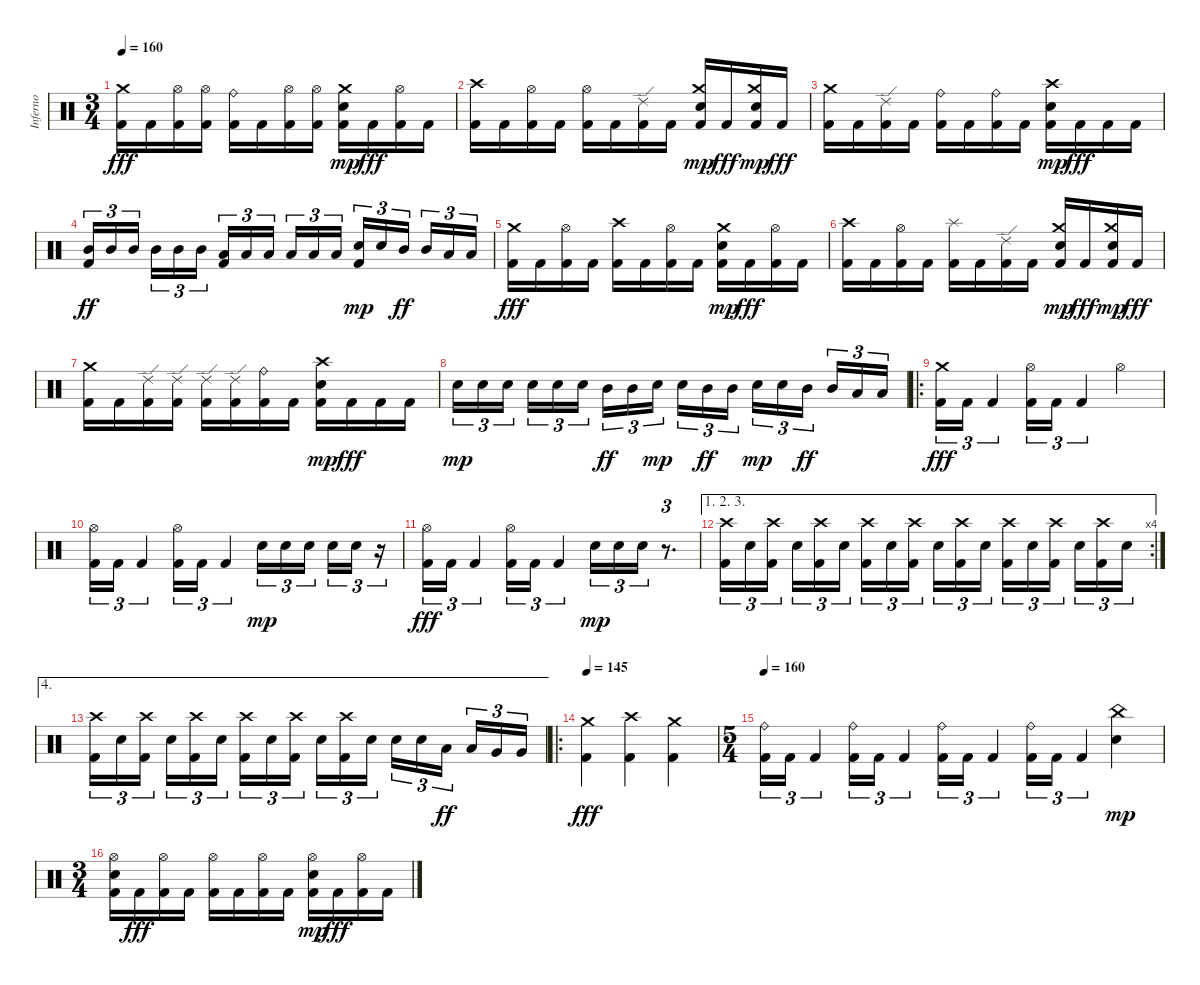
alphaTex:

\track ("Inferno" "Inferno") {instrument percussion}
\staff {score}
\articulation defaults
\ts (3 4)
\tempo 160
\clef neutral
\ks c
("Kick (hit) 2" "Crash medium (hit)").16{dy fff} "Kick (hit) 2".16 ("Kick (hit) 2" "Hi-Hat (open)").16 ("Kick (hit) 2" "Hi-Hat (open)").16 ("Kick (hit) 2" "Ride (bell)").16 "Kick (hit) 2".16 ("Kick (hit) 2" "Hi-Hat (open)").16 ("Kick (hit) 2" "Hi-Hat (open)").16 ("Kick (hit) 2" "Crash medium (hit)" "Electric Snare (hit)").16{dy mp} "Kick (hit) 2".16{dy fff} ("Kick (hit) 2" "Hi-Hat (open)").16 "Kick (hit) 2".16 |
("Kick (hit) 2" "Crash high (hit)").16 "Kick (hit) 2".16 ("Kick (hit) 2" "Hi-Hat (open)").16 "Kick (hit) 2".16 ("Kick (hit) 2" "Hi-Hat (open)").16 "Kick (hit) 2".16 ("Kick (hit) 2" "Ride (edge) 2").16 "Kick (hit) 2".16 ("Kick (hit) 2" "Crash medium (hit)" "Electric Snare (hit)").16{dy mp} "Kick (hit) 2".16{dy fff} ("Kick (hit) 2" "Crash medium (hit)" "Electric Snare (hit)").16{dy mp} "Kick (hit) 2".16{dy fff} |
("Kick (hit) 2" "Crash medium (hit)").16 "Kick (hit) 2".16 ("Kick (hit) 2" "Ride (edge) 2").16 "Kick (hit) 2".16 ("Kick (hit) 2" "Ride (bell)").16 "Kick (hit) 2".16 ("Kick (hit) 2" "Ride (bell)").16 "Kick (hit) 2".16 ("Kick (hit) 2" "Crash high (hit)" "Electric Snare (hit)").16{dy mp} "Kick (hit) 2".16{dy fff} "Kick (hit) 2".16 "Kick (hit) 2".16 |
("Kick (hit) 2" "Mid Tom (hit)").16{tu (3 2) dy ff} "Mid Tom (hit)".16{tu (3 2)} "Mid Tom (hit)".16{tu (3 2) beam splitsecondary} "Mid Tom (hit)".16{tu (3 2)} "Mid Tom (hit)".16{tu (3 2)} "Mid Tom (hit)".16{tu (3 2)} ("Kick (hit) 2" "Low Tom (hit)").16{tu (3 2)} "Low Tom (hit)".16{tu (3 2)} "Low Tom (hit)".16{tu (3 2) beam splitsecondary} "Low Tom (hit)".16{tu (3 2)} "Low Tom (hit)".16{tu (3 2)} "Low Tom (hit)".16{tu (3 2)} ("Kick (hit) 2" "Electric Snare (hit)").16{tu (3 2) dy mp} "Electric Snare (hit)".16{tu (3 2)} "Mid Tom (hit)".16{tu (3 2) dy ff beam splitsecondary} "Mid Tom (hit)".16{tu (3 2)} "Low Tom (hit)".16{tu (3 2)} "Low Tom (hit)".16{tu (3 2)} |
("Kick (hit) 2" "Crash medium (hit)").16{dy fff} "Kick (hit) 2".16 ("Kick (hit) 2" "Hi-Hat (open)").16 "Kick (hit) 2".16 ("Kick (hit) 2" "Crash high (hit)").16 "Kick (hit) 2".16 ("Kick (hit) 2" "Hi-Hat (open)").16 "Kick (hit) 2".16 ("Kick (hit) 2" "Crash medium (hit)" "Electric Snare (hit)").16{dy mp} "Kick (hit) 2".16{dy fff} ("Kick (hit) 2" "Hi-Hat (open)").16 "Kick (hit) 2".16 |
("Kick (hit) 2" "Crash high (hit)").16 "Kick (hit) 2".16 ("Kick (hit) 2" "Hi-Hat (open)").16 "Kick (hit) 2".16 ("Kick (hit) 2" "Splash (hit)").16 "Kick (hit) 2".16 ("Kick (hit) 2" "Ride (edge) 2").16 "Kick (hit) 2".16 ("Kick (hit) 2" "Crash medium (hit)" "Electric Snare (hit)").16{dy mp} "Kick (hit) 2".16{dy fff} ("Kick (hit) 2" "Crash medium (hit)" "Electric Snare (hit)").16{dy mp} "Kick (hit) 2".16{dy fff} |
("Kick (hit) 2" "Crash medium (hit)").16 "Kick (hit) 2".16 ("Kick (hit) 2" "Ride (edge) 2").16 ("Kick (hit) 2" "Ride (edge) 2").16 ("Kick (hit) 2" "Ride (edge) 2").16 ("Kick (hit) 2" "Ride (edge) 2").16 ("Kick (hit) 2" "Ride (bell)").16 "Kick (hit) 2".16 ("Kick (hit) 2" "Crash high (hit)" "Electric Snare (hit)").16{dy mp} "Kick (hit) 2".16{dy fff} "Kick (hit) 2".16 "Kick (hit) 2".16 |
"Electric Snare (hit)".16{tu (3 2) dy mp} "Electric Snare (hit)".16{tu (3 2)} "Electric Snare (hit)".16{tu (3 2) beam splitsecondary} "Electric Snare (hit)".16{tu (3 2)} "Electric Snare (hit)".16{tu (3 2)} "Electric Snare (hit)".16{tu (3 2)} "Mid Tom (hit)".16{tu (3 2) dy ff} "Mid Tom (hit)".16{tu (3 2)} "Electric Snare (hit)".16{tu (3 2) dy mp beam splitsecondary} "Electric Snare (hit)".16{tu (3 2)} "Mid Tom (hit)".16{tu (3 2) dy ff} "Mid Tom (hit)".16{tu (3 2)} "Electric Snare (hit)".16{tu (3 2) dy mp} "Electric Snare (hit)".16{tu (3 2)} "Mid Tom (hit)".16{tu (3 2) dy ff beam splitsecondary} "Mid Tom (hit)".16{tu (3 2)} "Low Tom (hit)".16{tu (3 2)} "Low Tom (hit)".16{tu (3 2)} |
\ro
("Kick (hit) 2" "Crash medium (hit)").16{tu (3 2) dy fff} "Kick (hit) 2".16{tu (3 2)} "Kick (hit) 2".4{tu (3 2)} ("Kick (hit) 2" "Hi-Hat (open)").16{tu (3 2)} "Kick (hit) 2".16{tu (3 2)} "Kick (hit) 2".4{tu (3 2)} "Hi-Hat (open)".4 |
("Kick (hit) 2" "Hi-Hat (open)").16{tu (3 2)} "Kick (hit) 2".16{tu (3 2)} "Kick (hit) 2".4{tu (3 2)} ("Kick (hit) 2" "Hi-Hat (open)").16{tu (3 2)} "Kick (hit) 2".16{tu (3 2)} "Kick (hit) 2".4{tu (3 2)} "Electric Snare (hit)".16{tu (3 2) dy mp} "Electric Snare (hit)".16{tu (3 2)} "Electric Snare (hit)".16{tu (3 2) beam splitsecondary} "Electric Snare (hit)".16{tu (3 2)} "Electric Snare (hit)".16{tu (3 2)} r.16{tu (3 2)} |
("Kick (hit) 2" "Hi-Hat (open)").16{tu (3 2) dy fff} "Kick (hit) 2".16{tu (3 2)} "Kick (hit) 2".4{tu (3 2)} ("Kick (hit) 2" "Hi-Hat (open)").16{tu (3 2)} "Kick (hit) 2".16{tu (3 2)} "Kick (hit) 2".4{tu (3 2)} "Electric Snare (hit)".16{tu (3 2) dy mp} "Electric Snare (hit)".16{tu (3 2)} "Electric Snare (hit)".16{tu (3 2)} r.8{d tu (3 2)} |
\ae (1 2 3)
\rc 4
("Kick (hit) 2" "Crash high (hit)").16{tu (3 2)} "Electric Snare (hit)".16{tu (3 2)} ("Kick (hit) 2" "Crash high (hit)").16{tu (3 2) beam splitsecondary} "Electric Snare (hit)".16{tu (3 2)} ("Kick (hit) 2" "Crash high (hit)").16{tu (3 2)} "Electric Snare (hit)".16{tu (3 2)} ("Kick (hit) 2" "Crash high (hit)").16{tu (3 2)} "Electric Snare (hit)".16{tu (3 2)} ("Kick (hit) 2" "Crash high (hit)").16{tu (3 2) beam splitsecondary} "Electric Snare (hit)".16{tu (3 2)} ("Kick (hit) 2" "Crash high (hit)").16{tu (3 2)} "Electric Snare (hit)".16{tu (3 2)} ("Kick (hit) 2" "Crash high (hit)").16{tu (3 2)} "Electric Snare (hit)".16{tu (3 2)} ("Kick (hit) 2" "Crash high (hit)").16{tu (3 2) beam splitsecondary} "Electric Snare (hit)".16{tu (3 2)} ("Kick (hit) 2" "Crash high (hit)").16{tu (3 2)} "Electric Snare (hit)".16{tu (3 2)} |
\ae 4
("Kick (hit) 2" "Crash high (hit)").16{tu (3 2)} "Electric Snare (hit)".16{tu (3 2)} ("Kick (hit) 2" "Crash high (hit)").16{tu (3 2) beam splitsecondary} "Electric Snare (hit)".16{tu (3 2)} ("Kick (hit) 2" "Crash high (hit)").16{tu (3 2)} "Electric Snare (hit)".16{tu (3 2)} ("Kick (hit) 2" "Crash high (hit)").16{tu (3 2)} "Electric Snare (hit)".16{tu (3 2)} ("Kick (hit) 2" "Crash high (hit)").16{tu (3 2) beam splitsecondary} "Electric Snare (hit)".16{tu (3 2)} ("Kick (hit) 2" "Crash high (hit)").16{tu (3 2)} "Electric Snare (hit)".16{tu (3 2)} "Electric Snare (hit)".16{tu (3 2)} "Electric Snare (hit)".16{tu (3 2)} "Low Tom (hit)".16{tu (3 2) dy ff beam splitsecondary} "Low Tom (hit)".16{tu (3 2)} "Very Low Tom (hit)".16{tu (3 2)} "Very Low Tom (hit)".16{tu (3 2)} |
\ro
\tempo 145
("Kick (hit) 2" "Crash medium (hit)").4{dy fff} ("Kick (hit) 2" "Crash high (hit)").4 ("Kick (hit) 2" "Crash medium (hit)").4 |
\ts (5 4)
\tempo 160
("Kick (hit) 2" "Ride (bell)").16{tu (3 2)} "Kick (hit) 2".16{tu (3 2)} "Kick (hit) 2".4{tu (3 2)} ("Kick (hit) 2" "Ride (bell)").16{tu (3 2)} "Kick (hit) 2".16{tu (3 2)} "Kick (hit) 2".4{tu (3 2)} ("Kick (hit) 2" "Ride (bell)").16{tu (3 2)} "Kick (hit) 2".16{tu (3 2)} "Kick (hit) 2".4{tu (3 2)} ("Kick (hit) 2" "Ride (bell)").16{tu (3 2)} "Kick (hit) 2".16{tu (3 2)} "Kick (hit) 2".4{tu (3 2)} ("China (hit)" "Electric Snare (hit)").4{dy mp} |
\ts (3 4)
("Kick (hit) 2" "Hi-Hat (open)" "Electric Snare (hit)").16 "Kick (hit) 2".16{dy fff} ("Kick (hit) 2" "Hi-Hat (open)").16 "Kick (hit) 2".16 ("Kick (hit) 2" "Hi-Hat (open)").16 "Kick (hit) 2".16 ("Kick (hit) 2" "Hi-Hat (open)").16 "Kick (hit) 2".16 ("Kick (hit) 2" "Hi-Hat (open)" "Electric Snare (hit)").16{dy mp} "Kick (hit) 2".16{dy fff} ("Kick (hit) 2" "Hi-Hat (open)").16 "Kick (hit) 2".16
